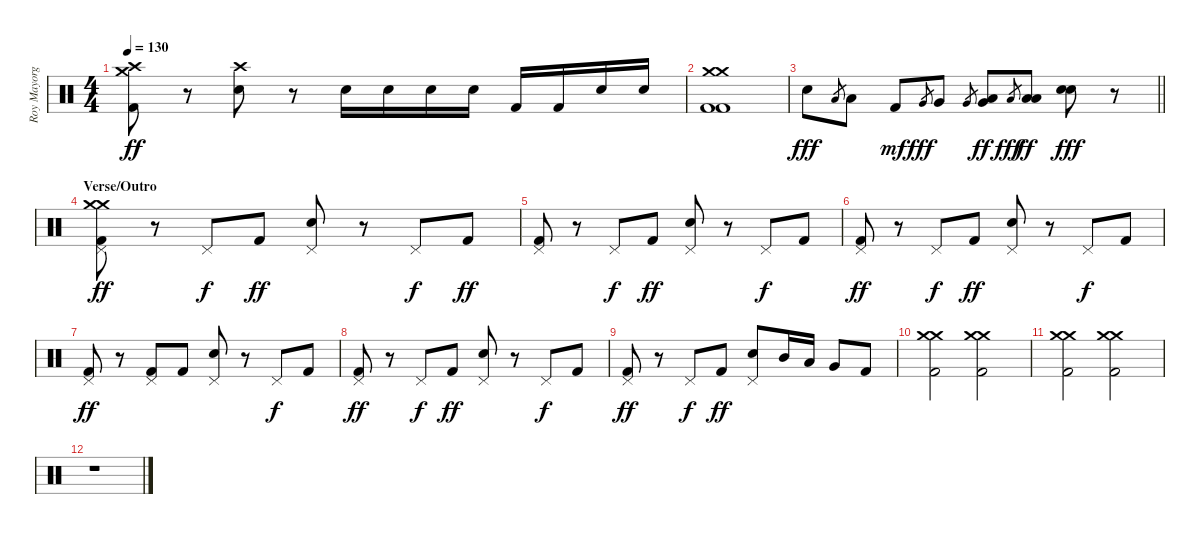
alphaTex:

\track ("Roy Mayorga (Drums)" "Roy Mayorg") {instrument percussion}
\staff {score}
\articulation defaults
\ts (4 4)
\tempo 130
\clef neutral
\ks c
("Crash medium (hit)" "Crash high (hit)" "Kick (hit) 2").8{dy ff} r.8 ("Crash high (hit)" "Electric Snare (hit)").8 r.8 "Electric Snare (hit)".16 "Electric Snare (hit)".16 "Electric Snare (hit)".16 "Electric Snare (hit)".16 "Kick (hit) 2".16 "Kick (hit) 2".16 "Electric Snare (hit)".16 "Electric Snare (hit)".16 |
("Crash medium (hit)" "Crash medium (hit)" "Kick (hit) 2" "Kick (hit) 2").1 |
\barLineRight lightlight "Snare (hit) 2".8{dy fff} "Low Tom (hit)".8{gr} "Low Tom (hit)".8 "Kick (hit) 2".8{dy mf} "Very Low Tom (hit)".8{gr dy fff} "Very Low Tom (hit)".8 "Very Low Tom (hit)".8{gr}
("Very Low Tom (hit)" "Low Floor Tom (hit)").8{dy ff} "Low Floor Tom (hit)".8{gr dy fff} ("Low Floor Tom (hit)" "Low Tom (hit)").8{dy ff} ("Snare (hit) 2" "Electric Snare (hit)").8{dy fff} r.8 |
\section ("" "Verse/Outro")
("Crash medium (hit)" "Crash medium (hit)" "Pedal Hi-Hat (hit)" "Kick (hit) 2").8{dy ff} r.8 "Pedal Hi-Hat (hit)".8{dy f} "Kick (hit) 2".8{dy ff} ("Pedal Hi-Hat (hit)" "Electric Snare (hit)").8 r.8 "Pedal Hi-Hat (hit)".8{dy f} "Kick (hit) 2".8{dy ff} |
("Pedal Hi-Hat (hit)" "Kick (hit) 2").8 r.8 "Pedal Hi-Hat (hit)".8{dy f} "Kick (hit) 2".8{dy ff} ("Pedal Hi-Hat (hit)" "Electric Snare (hit)").8 r.8 "Pedal Hi-Hat (hit)".8{dy f} "Kick (hit) 2".8 |
("Pedal Hi-Hat (hit)" "Kick (hit) 2").8{dy ff} r.8 "Pedal Hi-Hat (hit)".8{dy f} "Kick (hit) 2".8{dy ff} ("Pedal Hi-Hat (hit)" "Electric Snare (hit)").8 r.8 "Pedal Hi-Hat (hit)".8{dy f} "Kick (hit) 2".8 |
("Pedal Hi-Hat (hit)" "Kick (hit) 2").8{dy ff} r.8 ("Pedal Hi-Hat (hit)" "Kick (hit) 2").8 "Kick (hit) 2".8 ("Pedal Hi-Hat (hit)" "Electric Snare (hit)").8 r.8 "Pedal Hi-Hat (hit)".8{dy f} "Kick (hit) 2".8 |
("Pedal Hi-Hat (hit)" "Kick (hit) 2").8{dy ff} r.8 "Pedal Hi-Hat (hit)".8{dy f} "Kick (hit) 2".8{dy ff} ("Pedal Hi-Hat (hit)" "Electric Snare (hit)").8 r.8 "Pedal Hi-Hat (hit)".8{dy f} "Kick (hit) 2".8 |
("Pedal Hi-Hat (hit)" "Kick (hit) 2").8{dy ff} r.8 "Pedal Hi-Hat (hit)".8{dy f} "Kick (hit) 2".8{dy ff} ("Pedal Hi-Hat (hit)" "Electric Snare (hit)").8 "Mid Tom (hit)".16 "Low Tom (hit)".16 "Very Low Tom (hit)".8 "Kick (hit) 2".8 |
("Crash medium (hit)" "Crash medium (hit)" "Kick (hit) 2").2 ("Crash medium (hit)" "Crash medium (hit)" "Kick (hit) 2").2 |
("Crash medium (hit)" "Crash medium (hit)" "Kick (hit) 2").2 ("Crash medium (hit)" "Crash medium (hit)" "Kick (hit) 2").2 |
r.1
